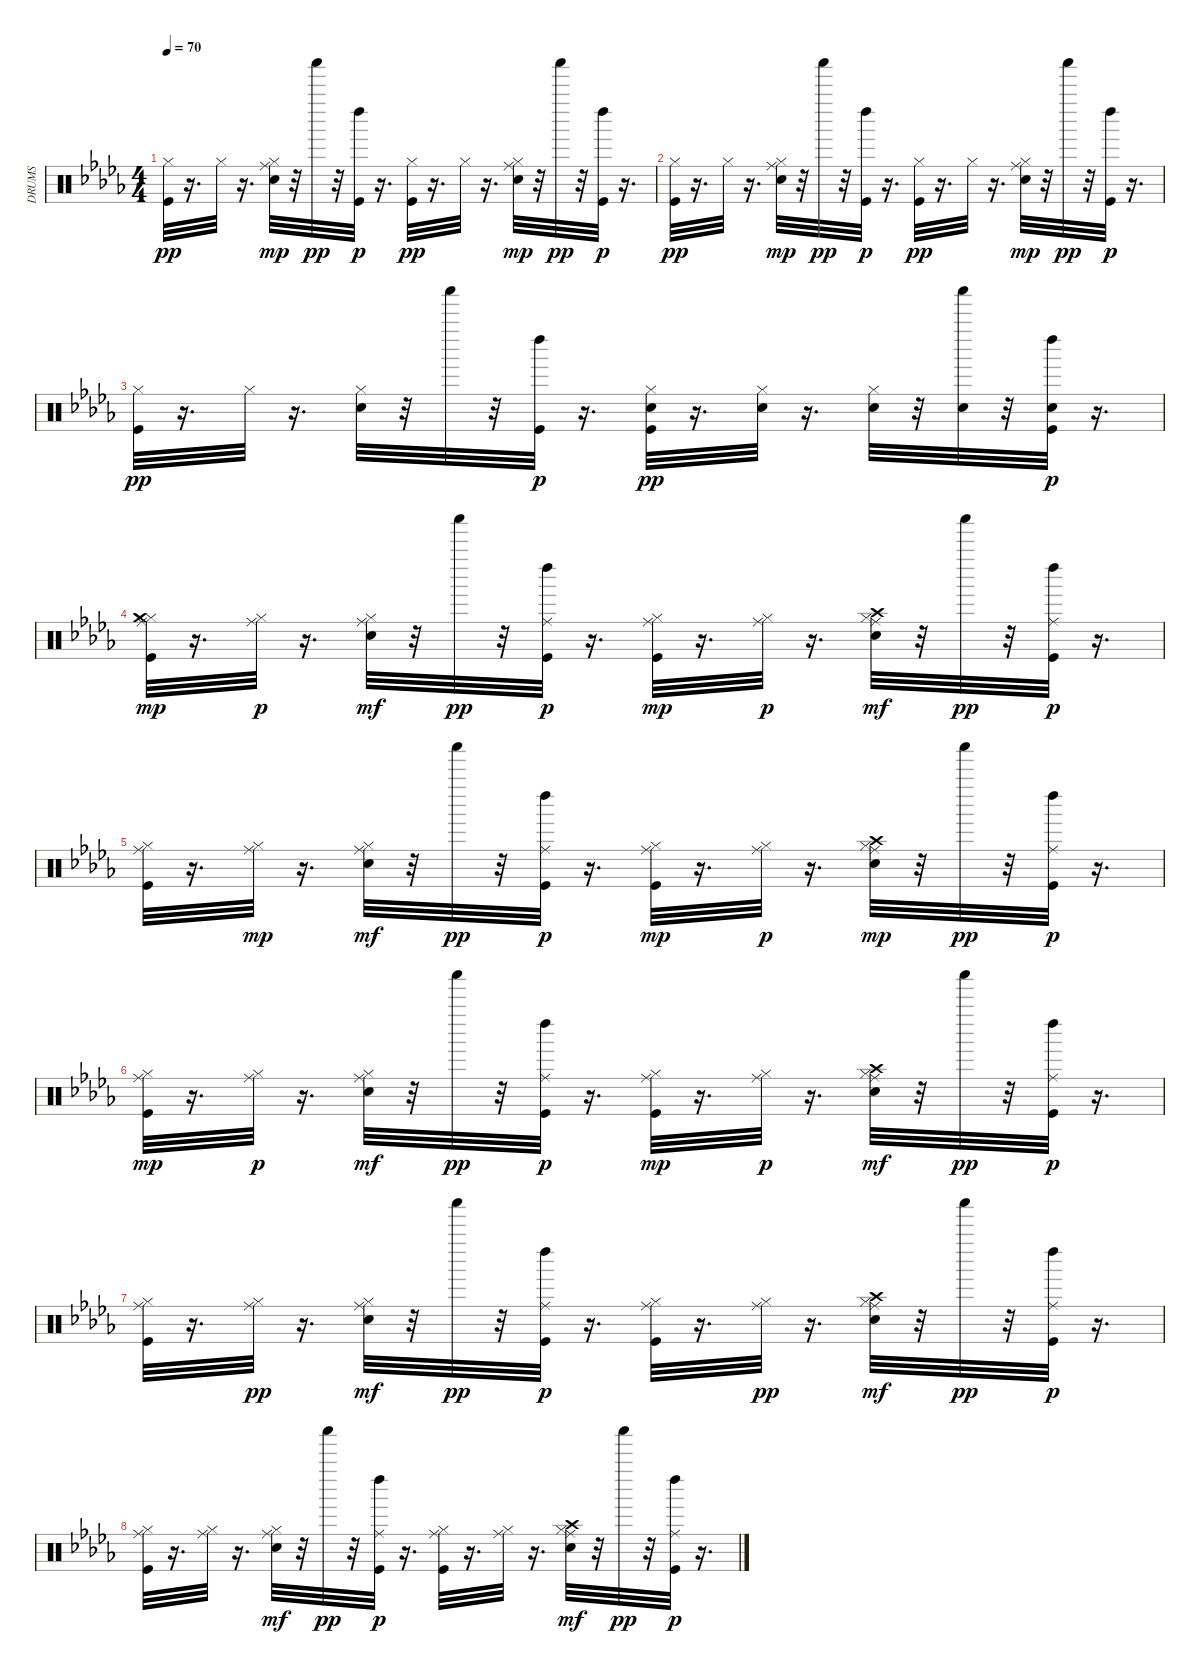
\track ("DRUMS" "DRUMS") {instrument percussion}
\staff {score}
\articulation defaults
\ts (4 4)
\tempo 70
\clef neutral
\ks bbminor
("Kick (hit)" "Hi-Hat (closed)").32{dy pp} r.16{d} "Hi-Hat (closed)".32 r.16{d} ("Electric Snare (hit)" "Hi-Hat (closed)" "Ride (middle)").32{dy mp} r.32 "Shaker (hit)".32{dy pp} r.32 ("Kick (hit)" "Left Maraca (hit)").32{dy p} r.16{d} ("Kick (hit)" "Hi-Hat (closed)").32{dy pp} r.16{d} "Hi-Hat (closed)".32 r.16{d} ("Electric Snare (hit)" "Hi-Hat (closed)" "Ride (middle)").32{dy mp} r.32 "Shaker (hit)".32{dy pp} r.32 ("Kick (hit)" "Left Maraca (hit)").32{dy p} r.16{d} |
("Kick (hit)" "Hi-Hat (closed)").32{dy pp} r.16{d} "Hi-Hat (closed)".32 r.16{d} ("Electric Snare (hit)" "Hi-Hat (closed)" "Ride (middle)").32{dy mp} r.32 "Shaker (hit)".32{dy pp} r.32 ("Kick (hit)" "Left Maraca (hit)").32{dy p} r.16{d} ("Kick (hit)" "Hi-Hat (closed)").32{dy pp} r.16{d} "Hi-Hat (closed)".32 r.16{d} ("Electric Snare (hit)" "Hi-Hat (closed)" "Ride (middle)").32{dy mp} r.32 "Shaker (hit)".32{dy pp} r.32 ("Kick (hit)" "Left Maraca (hit)").32{dy p} r.16{d} |
("Kick (hit)" "Hi-Hat (closed)").32{dy pp} r.16{d} "Hi-Hat (closed)".32 r.16{d} ("Electric Snare (hit)" "Hi-Hat (closed)").32 r.32 "Shaker (hit)".32 r.32 ("Kick (hit)" "Left Maraca (hit)").32{dy p} r.16{d} ("Kick (hit)" "Electric Snare (hit)" "Hi-Hat (closed)").32{dy pp} r.16{d} ("Electric Snare (hit)" "Hi-Hat (closed)").32 r.16{d} ("Electric Snare (hit)" "Hi-Hat (closed)").32 r.32 ("Electric Snare (hit)" "Shaker (hit)").32 r.32 ("Kick (hit)" "Electric Snare (hit)" "Left Maraca (hit)").32{dy p} r.16{d} |
("Kick (hit)" "Hi-Hat (closed)" "Ride (middle)" "Crash medium (hit)").32{dy mp} r.16{d} ("Hi-Hat (closed)" "Ride (middle)").32{dy p} r.16{d} ("Electric Snare (hit)" "Hi-Hat (closed)" "Ride (middle)").32{dy mf} r.32 "Shaker (hit)".32{dy pp} r.32 ("Kick (hit)" "Ride (middle)" "Left Maraca (hit)").32{dy p} r.16{d} ("Kick (hit)" "Hi-Hat (closed)" "Ride (middle)").32{dy mp} r.16{d} ("Hi-Hat (closed)" "Ride (middle)").32{dy p} r.16{d} ("Electric Snare (hit)" "Hi-Hat (closed)" "Crash high (hit)" "Ride (middle)").32{dy mf} r.32 "Shaker (hit)".32{dy pp} r.32 ("Kick (hit)" "Ride (middle)" "Left Maraca (hit)").32{dy p} r.16{d} |
("Kick (hit)" "Hi-Hat (closed)" "Ride (middle)").32 r.16{d} ("Hi-Hat (closed)" "Ride (middle)").32{dy mp} r.16{d} ("Electric Snare (hit)" "Hi-Hat (closed)" "Ride (middle)").32{dy mf} r.32 "Shaker (hit)".32{dy pp} r.32 ("Kick (hit)" "Ride (middle)" "Left Maraca (hit)").32{dy p} r.16{d} ("Kick (hit)" "Hi-Hat (closed)" "Ride (middle)").32{dy mp} r.16{d} ("Hi-Hat (closed)" "Ride (middle)").32{dy p} r.16{d} ("Electric Snare (hit)" "Hi-Hat (closed)" "Crash high (hit)" "Ride (middle)").32{dy mp} r.32 "Shaker (hit)".32{dy pp} r.32 ("Kick (hit)" "Ride (middle)" "Left Maraca (hit)").32{dy p} r.16{d} |
("Kick (hit)" "Hi-Hat (closed)" "Ride (middle)").32{dy mp} r.16{d} ("Hi-Hat (closed)" "Ride (middle)").32{dy p} r.16{d} ("Electric Snare (hit)" "Hi-Hat (closed)" "Ride (middle)").32{dy mf} r.32 "Shaker (hit)".32{dy pp} r.32 ("Kick (hit)" "Ride (middle)" "Left Maraca (hit)").32{dy p} r.16{d} ("Kick (hit)" "Hi-Hat (closed)" "Ride (middle)").32{dy mp} r.16{d} ("Hi-Hat (closed)" "Ride (middle)").32{dy p} r.16{d} ("Electric Snare (hit)" "Hi-Hat (closed)" "Crash high (hit)" "Ride (middle)").32{dy mf} r.32 "Shaker (hit)".32{dy pp} r.32 ("Kick (hit)" "Ride (middle)" "Left Maraca (hit)").32{dy p} r.16{d} |
("Kick (hit)" "Hi-Hat (closed)" "Ride (middle)").32 r.16{d} ("Hi-Hat (closed)" "Ride (middle)").32{dy pp} r.16{d} ("Electric Snare (hit)" "Hi-Hat (closed)" "Ride (middle)").32{dy mf} r.32 "Shaker (hit)".32{dy pp} r.32 ("Kick (hit)" "Ride (middle)" "Left Maraca (hit)").32{dy p} r.16{d} ("Kick (hit)" "Hi-Hat (closed)" "Ride (middle)").32 r.16{d} ("Hi-Hat (closed)" "Ride (middle)").32{dy pp} r.16{d} ("Electric Snare (hit)" "Hi-Hat (closed)" "Crash high (hit)" "Ride (middle)").32{dy mf} r.32 "Shaker (hit)".32{dy pp} r.32 ("Kick (hit)" "Ride (middle)" "Left Maraca (hit)").32{dy p} r.16{d} |
("Kick (hit)" "Hi-Hat (closed)" "Ride (middle)").32 r.16{d} ("Hi-Hat (closed)" "Ride (middle)").32 r.16{d} ("Electric Snare (hit)" "Hi-Hat (closed)" "Ride (middle)").32{dy mf} r.32 "Shaker (hit)".32{dy pp} r.32 ("Kick (hit)" "Ride (middle)" "Left Maraca (hit)").32{dy p} r.16{d} ("Kick (hit)" "Hi-Hat (closed)" "Ride (middle)").32 r.16{d} ("Hi-Hat (closed)" "Ride (middle)").32 r.16{d} ("Electric Snare (hit)" "Hi-Hat (closed)" "Crash high (hit)" "Ride (middle)").32{dy mf} r.32 "Shaker (hit)".32{dy pp} r.32 ("Kick (hit)" "Ride (middle)" "Left Maraca (hit)").32{dy p} r.16{d}
